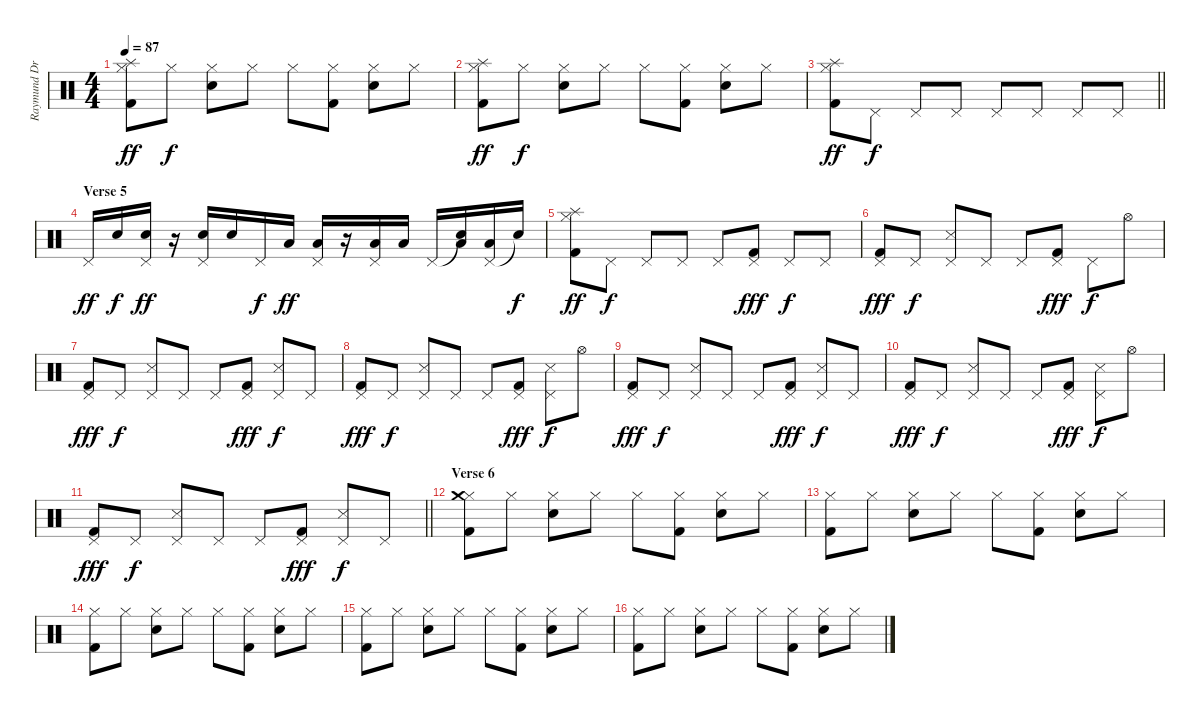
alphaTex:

\track ("Raymund Drums" "Raymund Dr") {instrument percussion}
\staff {score}
\articulation defaults
\ts (4 4)
\tempo 87
\clef neutral
\ks c
("Hi-Hat (closed)" "Kick (hit) 2" "Splash (hit)").8{dy ff} "Hi-Hat (closed)".8{dy f} ("Hi-Hat (closed)" "Snare (hit) 2").8 "Hi-Hat (closed)".8 "Hi-Hat (closed)".8 ("Hi-Hat (closed)" "Kick (hit) 2").8 ("Hi-Hat (closed)" "Snare (hit) 2").8 "Hi-Hat (closed)".8 |
("Hi-Hat (closed)" "Kick (hit) 2" "Splash (hit)").8{dy ff} "Hi-Hat (closed)".8{dy f} ("Hi-Hat (closed)" "Snare (hit) 2").8 "Hi-Hat (closed)".8 "Hi-Hat (closed)".8 ("Hi-Hat (closed)" "Kick (hit) 2").8 ("Hi-Hat (closed)" "Snare (hit) 2").8 "Hi-Hat (closed)".8 |
\barLineRight lightlight
("Hi-Hat (closed)" "Kick (hit) 2" "Splash (hit)").8{dy ff} "Pedal Hi-Hat (hit)".8{dy f} "Pedal Hi-Hat (hit)".8 "Pedal Hi-Hat (hit)".8 "Pedal Hi-Hat (hit)".8 "Pedal Hi-Hat (hit)".8 "Pedal Hi-Hat (hit)".8 "Pedal Hi-Hat (hit)".8 |
\section ("" "Verse 5")
"Pedal Hi-Hat (hit)".16{dy ff} "Snare (hit) 2".16{dy f} ("Pedal Hi-Hat (hit)" "Snare (hit) 2").16{dy ff} r.16 ("Pedal Hi-Hat (hit)" "Snare (hit) 2").16 "Snare (hit) 2".16 "Pedal Hi-Hat (hit)".16{dy f} "Low Tom (hit)".16{dy ff} ("Pedal Hi-Hat (hit)" "Low Tom (hit)").16 r.16 ("Pedal Hi-Hat (hit)" "Low Tom (hit)").16 "Low Tom (hit)".16 "Pedal Hi-Hat (hit)".16 ("Snare (hit)"{t} "Low Tom (hit)").16 ("Pedal Hi-Hat (hit)" "Low Tom (hit)").16 "Snare (hit)"{t}.16{dy f} |
("Hi-Hat (closed)" "Kick (hit) 2" "Splash (hit)").8{dy ff} "Pedal Hi-Hat (hit)".8{dy f} "Pedal Hi-Hat (hit)".8 "Pedal Hi-Hat (hit)".8 "Pedal Hi-Hat (hit)".8 ("Pedal Hi-Hat (hit)" "Kick (hit) 2").8{dy fff} "Pedal Hi-Hat (hit)".8{dy f} "Pedal Hi-Hat (hit)".8 |
("Pedal Hi-Hat (hit)" "Kick (hit) 2").8{dy fff} "Pedal Hi-Hat (hit)".8{dy f} ("Pedal Hi-Hat (hit)" "Snare (side stick) 3").8 "Pedal Hi-Hat (hit)".8 "Pedal Hi-Hat (hit)".8 ("Pedal Hi-Hat (hit)" "Kick (hit) 2").8{dy fff} "Pedal Hi-Hat (hit)".8{dy f} "Hi-Hat (open)".8 |
("Pedal Hi-Hat (hit)" "Kick (hit) 2").8{dy fff} "Pedal Hi-Hat (hit)".8{dy f} ("Pedal Hi-Hat (hit)" "Snare (side stick) 3").8 "Pedal Hi-Hat (hit)".8 "Pedal Hi-Hat (hit)".8 ("Pedal Hi-Hat (hit)" "Kick (hit) 2").8{dy fff} ("Pedal Hi-Hat (hit)" "Snare (side stick) 3").8{dy f} "Pedal Hi-Hat (hit)".8 |
("Pedal Hi-Hat (hit)" "Kick (hit) 2").8{dy fff} "Pedal Hi-Hat (hit)".8{dy f} ("Pedal Hi-Hat (hit)" "Snare (side stick) 3").8 "Pedal Hi-Hat (hit)".8 "Pedal Hi-Hat (hit)".8 ("Pedal Hi-Hat (hit)" "Kick (hit) 2").8{dy fff} ("Pedal Hi-Hat (hit)" "Snare (side stick) 3").8{dy f} "Hi-Hat (open)".8 |
("Pedal Hi-Hat (hit)" "Kick (hit) 2").8{dy fff} "Pedal Hi-Hat (hit)".8{dy f} ("Pedal Hi-Hat (hit)" "Snare (side stick) 3").8 "Pedal Hi-Hat (hit)".8 "Pedal Hi-Hat (hit)".8 ("Pedal Hi-Hat (hit)" "Kick (hit) 2").8{dy fff} ("Pedal Hi-Hat (hit)" "Snare (side stick) 3").8{dy f} "Pedal Hi-Hat (hit)".8 |
("Pedal Hi-Hat (hit)" "Kick (hit) 2").8{dy fff} "Pedal Hi-Hat (hit)".8{dy f} ("Pedal Hi-Hat (hit)" "Snare (side stick) 3").8 "Pedal Hi-Hat (hit)".8 "Pedal Hi-Hat (hit)".8 ("Pedal Hi-Hat (hit)" "Kick (hit) 2").8{dy fff} ("Pedal Hi-Hat (hit)" "Snare (side stick) 3").8{dy f} "Hi-Hat (open)".8 |
\barLineRight lightlight
("Pedal Hi-Hat (hit)" "Kick (hit) 2").8{dy fff} "Pedal Hi-Hat (hit)".8{dy f} ("Pedal Hi-Hat (hit)" "Snare (side stick) 3").8 "Pedal Hi-Hat (hit)".8 "Pedal Hi-Hat (hit)".8 ("Pedal Hi-Hat (hit)" "Kick (hit) 2").8{dy fff} ("Pedal Hi-Hat (hit)" "Snare (side stick) 3").8{dy f} "Pedal Hi-Hat (hit)".8 |
\section ("" "Verse 6")
("Hi-Hat (closed)" "Kick (hit) 2" "Crash medium (hit)").8 "Hi-Hat (closed)".8 ("Hi-Hat (closed)" "Snare (hit) 2").8 "Hi-Hat (closed)".8 "Hi-Hat (closed)".8 ("Hi-Hat (closed)" "Kick (hit) 2").8 ("Hi-Hat (closed)" "Snare (hit) 2").8 "Hi-Hat (closed)".8 |
("Hi-Hat (closed)" "Kick (hit) 2").8 "Hi-Hat (closed)".8 ("Hi-Hat (closed)" "Snare (hit) 2").8 "Hi-Hat (closed)".8 "Hi-Hat (closed)".8 ("Hi-Hat (closed)" "Kick (hit) 2").8 ("Hi-Hat (closed)" "Snare (hit) 2").8 "Hi-Hat (closed)".8 |
("Hi-Hat (closed)" "Kick (hit) 2").8 "Hi-Hat (closed)".8 ("Hi-Hat (closed)" "Snare (hit) 2").8 "Hi-Hat (closed)".8 "Hi-Hat (closed)".8 ("Hi-Hat (closed)" "Kick (hit) 2").8 ("Hi-Hat (closed)" "Snare (hit) 2").8 "Hi-Hat (closed)".8 |
("Hi-Hat (closed)" "Kick (hit) 2").8 "Hi-Hat (closed)".8 ("Hi-Hat (closed)" "Snare (hit) 2").8 "Hi-Hat (closed)".8 "Hi-Hat (closed)".8 ("Hi-Hat (closed)" "Kick (hit) 2").8 ("Hi-Hat (closed)" "Snare (hit) 2").8 "Hi-Hat (closed)".8 |
("Hi-Hat (closed)" "Kick (hit) 2").8 "Hi-Hat (closed)".8 ("Hi-Hat (closed)" "Snare (hit) 2").8 "Hi-Hat (closed)".8 "Hi-Hat (closed)".8 ("Hi-Hat (closed)" "Kick (hit) 2").8 ("Hi-Hat (closed)" "Snare (hit) 2").8 "Hi-Hat (closed)".8
